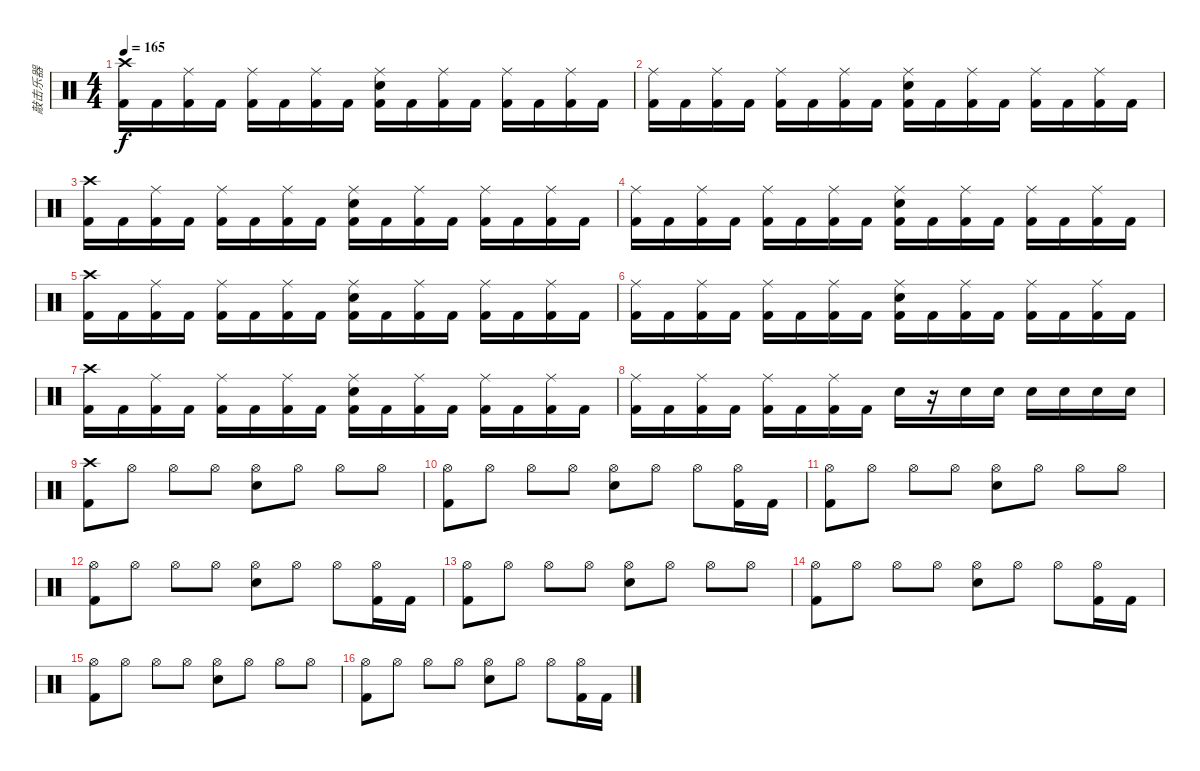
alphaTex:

\track ("敲击乐器" "敲击乐器") {instrument percussion}
\staff {score}
\articulation defaults
\ts (4 4)
\tempo 165
\clef neutral
\ks c
("Crash high (hit)" "Kick (hit) 2").16{dy f} "Kick (hit) 2".16 ("Ride (middle)" "Kick (hit) 2").16 "Kick (hit) 2".16 ("Ride (middle)" "Kick (hit) 2").16 "Kick (hit) 2".16 ("Ride (middle)" "Kick (hit) 2").16 "Kick (hit) 2".16 ("Ride (middle)" "Kick (hit) 2" "Snare (hit) 2").16 "Kick (hit) 2".16 ("Ride (middle)" "Kick (hit) 2").16 "Kick (hit) 2".16 ("Ride (middle)" "Kick (hit) 2").16 "Kick (hit) 2".16 ("Ride (middle)" "Kick (hit) 2").16 "Kick (hit) 2".16 |
("Ride (middle)" "Kick (hit) 2").16 "Kick (hit) 2".16 ("Ride (middle)" "Kick (hit) 2").16 "Kick (hit) 2".16 ("Ride (middle)" "Kick (hit) 2").16 "Kick (hit) 2".16 ("Ride (middle)" "Kick (hit) 2").16 "Kick (hit) 2".16 ("Ride (middle)" "Kick (hit) 2" "Snare (hit) 2").16 "Kick (hit) 2".16 ("Ride (middle)" "Kick (hit) 2").16 "Kick (hit) 2".16 ("Ride (middle)" "Kick (hit) 2").16 "Kick (hit) 2".16 ("Ride (middle)" "Kick (hit) 2").16 "Kick (hit) 2".16 |
("Crash high (hit)" "Kick (hit) 2").16 "Kick (hit) 2".16 ("Ride (middle)" "Kick (hit) 2").16 "Kick (hit) 2".16 ("Ride (middle)" "Kick (hit) 2").16 "Kick (hit) 2".16 ("Ride (middle)" "Kick (hit) 2").16 "Kick (hit) 2".16 ("Ride (middle)" "Kick (hit) 2" "Snare (hit) 2").16 "Kick (hit) 2".16 ("Ride (middle)" "Kick (hit) 2").16 "Kick (hit) 2".16 ("Ride (middle)" "Kick (hit) 2").16 "Kick (hit) 2".16 ("Ride (middle)" "Kick (hit) 2").16 "Kick (hit) 2".16 |
("Ride (middle)" "Kick (hit) 2").16 "Kick (hit) 2".16 ("Ride (middle)" "Kick (hit) 2").16 "Kick (hit) 2".16 ("Ride (middle)" "Kick (hit) 2").16 "Kick (hit) 2".16 ("Ride (middle)" "Kick (hit) 2").16 "Kick (hit) 2".16 ("Ride (middle)" "Kick (hit) 2" "Snare (hit) 2").16 "Kick (hit) 2".16 ("Ride (middle)" "Kick (hit) 2").16 "Kick (hit) 2".16 ("Ride (middle)" "Kick (hit) 2").16 "Kick (hit) 2".16 ("Ride (middle)" "Kick (hit) 2").16 "Kick (hit) 2".16 |
("Crash high (hit)" "Kick (hit) 2").16 "Kick (hit) 2".16 ("Ride (middle)" "Kick (hit) 2").16 "Kick (hit) 2".16 ("Ride (middle)" "Kick (hit) 2").16 "Kick (hit) 2".16 ("Ride (middle)" "Kick (hit) 2").16 "Kick (hit) 2".16 ("Ride (middle)" "Kick (hit) 2" "Snare (hit) 2").16 "Kick (hit) 2".16 ("Ride (middle)" "Kick (hit) 2").16 "Kick (hit) 2".16 ("Ride (middle)" "Kick (hit) 2").16 "Kick (hit) 2".16 ("Ride (middle)" "Kick (hit) 2").16 "Kick (hit) 2".16 |
("Ride (middle)" "Kick (hit) 2").16 "Kick (hit) 2".16 ("Ride (middle)" "Kick (hit) 2").16 "Kick (hit) 2".16 ("Ride (middle)" "Kick (hit) 2").16 "Kick (hit) 2".16 ("Ride (middle)" "Kick (hit) 2").16 "Kick (hit) 2".16 ("Ride (middle)" "Kick (hit) 2" "Snare (hit) 2").16 "Kick (hit) 2".16 ("Ride (middle)" "Kick (hit) 2").16 "Kick (hit) 2".16 ("Ride (middle)" "Kick (hit) 2").16 "Kick (hit) 2".16 ("Ride (middle)" "Kick (hit) 2").16 "Kick (hit) 2".16 |
("Crash high (hit)" "Kick (hit) 2").16 "Kick (hit) 2".16 ("Ride (middle)" "Kick (hit) 2").16 "Kick (hit) 2".16 ("Ride (middle)" "Kick (hit) 2").16 "Kick (hit) 2".16 ("Ride (middle)" "Kick (hit) 2").16 "Kick (hit) 2".16 ("Ride (middle)" "Kick (hit) 2" "Snare (hit) 2").16 "Kick (hit) 2".16 ("Ride (middle)" "Kick (hit) 2").16 "Kick (hit) 2".16 ("Ride (middle)" "Kick (hit) 2").16 "Kick (hit) 2".16 ("Ride (middle)" "Kick (hit) 2").16 "Kick (hit) 2".16 |
("Ride (middle)" "Kick (hit) 2").16 "Kick (hit) 2".16 ("Ride (middle)" "Kick (hit) 2").16 "Kick (hit) 2".16 ("Ride (middle)" "Kick (hit) 2").16 "Kick (hit) 2".16 ("Ride (middle)" "Kick (hit) 2").16 "Kick (hit) 2".16 "Snare (hit) 2".16 r.16 "Snare (hit) 2".16 "Snare (hit) 2".16 "Snare (hit) 2".16 "Snare (hit) 2".16 "Snare (hit) 2".16 "Snare (hit) 2".16 |
("Crash high (hit)" "Kick (hit) 2").8 "Hi-Hat (open)".8 "Hi-Hat (open)".8 "Hi-Hat (open)".8 ("Snare (hit) 2" "Hi-Hat (open)").8 "Hi-Hat (open)".8 "Hi-Hat (open)".8 "Hi-Hat (open)".8 |
("Hi-Hat (open)" "Kick (hit) 2").8 "Hi-Hat (open)".8 "Hi-Hat (open)".8 "Hi-Hat (open)".8 ("Snare (hit) 2" "Hi-Hat (open)").8 "Hi-Hat (open)".8 "Hi-Hat (open)".8 ("Kick (hit) 2" "Hi-Hat (open)").16 "Kick (hit) 2".16 |
("Hi-Hat (open)" "Kick (hit) 2").8 "Hi-Hat (open)".8 "Hi-Hat (open)".8 "Hi-Hat (open)".8 ("Snare (hit) 2" "Hi-Hat (open)").8 "Hi-Hat (open)".8 "Hi-Hat (open)".8 "Hi-Hat (open)".8 |
("Hi-Hat (open)" "Kick (hit) 2").8 "Hi-Hat (open)".8 "Hi-Hat (open)".8 "Hi-Hat (open)".8 ("Snare (hit) 2" "Hi-Hat (open)").8 "Hi-Hat (open)".8 "Hi-Hat (open)".8 ("Kick (hit) 2" "Hi-Hat (open)").16 "Kick (hit) 2".16 |
("Hi-Hat (open)" "Kick (hit) 2").8 "Hi-Hat (open)".8 "Hi-Hat (open)".8 "Hi-Hat (open)".8 ("Snare (hit) 2" "Hi-Hat (open)").8 "Hi-Hat (open)".8 "Hi-Hat (open)".8 "Hi-Hat (open)".8 |
("Hi-Hat (open)" "Kick (hit) 2").8 "Hi-Hat (open)".8 "Hi-Hat (open)".8 "Hi-Hat (open)".8 ("Snare (hit) 2" "Hi-Hat (open)").8 "Hi-Hat (open)".8 "Hi-Hat (open)".8 ("Kick (hit) 2" "Hi-Hat (open)").16 "Kick (hit) 2".16 |
("Hi-Hat (open)" "Kick (hit) 2").8 "Hi-Hat (open)".8 "Hi-Hat (open)".8 "Hi-Hat (open)".8 ("Snare (hit) 2" "Hi-Hat (open)").8 "Hi-Hat (open)".8 "Hi-Hat (open)".8 "Hi-Hat (open)".8 |
("Hi-Hat (open)" "Kick (hit) 2").8 "Hi-Hat (open)".8 "Hi-Hat (open)".8 "Hi-Hat (open)".8 ("Snare (hit) 2" "Hi-Hat (open)").8 "Hi-Hat (open)".8 "Hi-Hat (open)".8 ("Kick (hit) 2" "Hi-Hat (open)").16 "Kick (hit) 2".16
